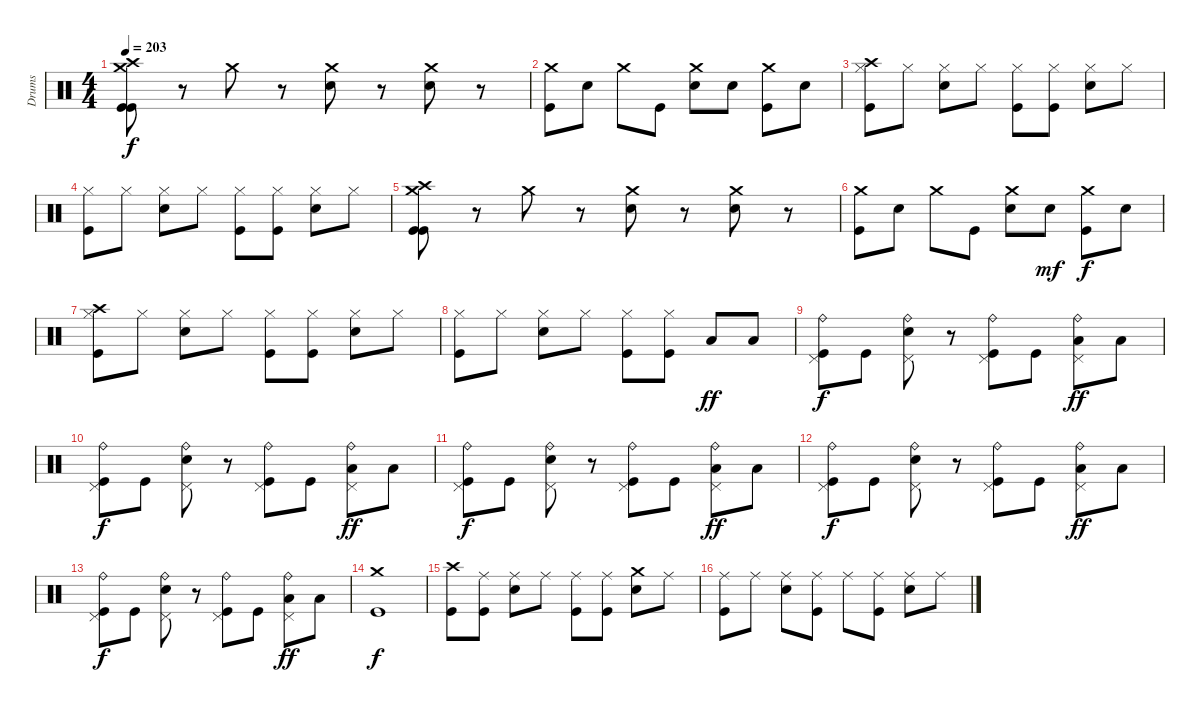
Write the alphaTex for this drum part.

\track ("Drums" "Drums") {instrument percussion}
\staff {score}
\articulation defaults
\ts (4 4)
\tempo 203
\clef neutral
\ks c
("Crash high (hit)" "Kick (hit)" "Crash medium (hit)" "Kick (hit)").8{dy f} r.8 "Crash medium (hit)".8 r.8 ("Crash medium (hit)" "Snare (hit) 2").8 r.8 ("Crash medium (hit)" "Snare (hit) 2").8 r.8 |
("Crash medium (hit)" "Kick (hit)").8 "Snare (hit) 2".8 "Crash medium (hit)".8 "Kick (hit)".8 ("Crash medium (hit)" "Snare (hit) 2").8 "Snare (hit) 2".8 ("Crash medium (hit)" "Kick (hit)").8 "Snare (hit) 2".8 |
("Crash high (hit)" "Hi-Hat (closed)" "Kick (hit)").8 "Hi-Hat (closed)".8 ("Hi-Hat (closed)" "Snare (hit) 2").8 "Hi-Hat (closed)".8 ("Hi-Hat (closed)" "Kick (hit)").8 ("Hi-Hat (closed)" "Kick (hit)").8 ("Hi-Hat (closed)" "Snare (hit) 2").8 "Hi-Hat (closed)".8 |
("Hi-Hat (closed)" "Kick (hit)").8 "Hi-Hat (closed)".8 ("Hi-Hat (closed)" "Snare (hit) 2").8 "Hi-Hat (closed)".8 ("Hi-Hat (closed)" "Kick (hit)").8 ("Hi-Hat (closed)" "Kick (hit)").8 ("Hi-Hat (closed)" "Snare (hit) 2").8 "Hi-Hat (closed)".8 |
("Crash high (hit)" "Kick (hit)" "Crash medium (hit)" "Kick (hit)").8 r.8 "Crash medium (hit)".8 r.8 ("Crash medium (hit)" "Snare (hit) 2").8 r.8 ("Crash medium (hit)" "Snare (hit) 2").8 r.8 |
("Crash medium (hit)" "Kick (hit)").8 "Snare (hit) 2".8 "Crash medium (hit)".8 "Kick (hit)".8 ("Crash medium (hit)" "Snare (hit) 2").8 "Snare (hit) 2".8{dy mf} ("Crash medium (hit)" "Kick (hit)").8{dy f} "Snare (hit) 2".8 |
("Crash high (hit)" "Hi-Hat (closed)" "Kick (hit)").8 "Hi-Hat (closed)".8 ("Hi-Hat (closed)" "Snare (hit) 2").8 "Hi-Hat (closed)".8 ("Hi-Hat (closed)" "Kick (hit)").8 ("Hi-Hat (closed)" "Kick (hit)").8 ("Hi-Hat (closed)" "Snare (hit) 2").8 "Hi-Hat (closed)".8 |
("Hi-Hat (closed)" "Kick (hit)").8 "Hi-Hat (closed)".8 ("Hi-Hat (closed)" "Snare (hit) 2").8 "Hi-Hat (closed)".8 ("Hi-Hat (closed)" "Kick (hit)").8 ("Hi-Hat (closed)" "Kick (hit)").8 "Low Tom (hit)".8{dy ff} "Low Tom (hit)".8 |
("Pedal Hi-Hat (hit)" "Ride (bell)" "Kick (hit)").8{dy f} "Kick (hit)".8 ("Pedal Hi-Hat (hit)" "Ride (bell)" "Snare (hit) 2").8 r.8 ("Pedal Hi-Hat (hit)" "Ride (bell)" "Kick (hit)").8 "Kick (hit)".8 ("Pedal Hi-Hat (hit)" "Ride (bell)" "Low Tom (hit)").8{dy ff} "Low Tom (hit)".8 |
("Pedal Hi-Hat (hit)" "Ride (bell)" "Kick (hit)").8{dy f} "Kick (hit)".8 ("Pedal Hi-Hat (hit)" "Ride (bell)" "Snare (hit) 2").8 r.8 ("Pedal Hi-Hat (hit)" "Ride (bell)" "Kick (hit)").8 "Kick (hit)".8 ("Pedal Hi-Hat (hit)" "Ride (bell)" "Low Tom (hit)").8{dy ff} "Low Tom (hit)".8 |
("Pedal Hi-Hat (hit)" "Ride (bell)" "Kick (hit)").8{dy f} "Kick (hit)".8 ("Pedal Hi-Hat (hit)" "Ride (bell)" "Snare (hit) 2").8 r.8 ("Pedal Hi-Hat (hit)" "Ride (bell)" "Kick (hit)").8 "Kick (hit)".8 ("Pedal Hi-Hat (hit)" "Ride (bell)" "Low Tom (hit)").8{dy ff} "Low Tom (hit)".8 |
("Pedal Hi-Hat (hit)" "Ride (bell)" "Kick (hit)").8{dy f} "Kick (hit)".8 ("Pedal Hi-Hat (hit)" "Ride (bell)" "Snare (hit) 2").8 r.8 ("Pedal Hi-Hat (hit)" "Ride (bell)" "Kick (hit)").8 "Kick (hit)".8 ("Pedal Hi-Hat (hit)" "Ride (bell)" "Low Tom (hit)").8{dy ff} "Low Tom (hit)".8 |
("Pedal Hi-Hat (hit)" "Ride (bell)" "Kick (hit)").8{dy f} "Kick (hit)".8 ("Pedal Hi-Hat (hit)" "Ride (bell)" "Snare (hit) 2").8 r.8 ("Pedal Hi-Hat (hit)" "Ride (bell)" "Kick (hit)").8 "Kick (hit)".8 ("Pedal Hi-Hat (hit)" "Ride (bell)" "Low Tom (hit)").8{dy ff} "Low Tom (hit)".8 |
("Crash medium (hit)" "Kick (hit)").1{dy f} |
("Crash high (hit)" "Kick (hit)").8 ("Ride (middle)" "Kick (hit)").8 ("Ride (middle)" "Snare (hit) 2").8 "Ride (middle)".8 ("Ride (middle)" "Kick (hit)").8 ("Ride (middle)" "Kick (hit)").8 ("Crash medium (hit)" "Snare (hit) 2").8 "Ride (middle)".8 |
("Ride (middle)" "Kick (hit)").8 "Ride (middle)".8 ("Ride (middle)" "Snare (hit) 2").8 ("Ride (middle)" "Kick (hit)").8 "Ride (middle)".8 ("Ride (middle)" "Kick (hit)").8 ("Ride (middle)" "Snare (hit) 2").8 "Ride (middle)".8
